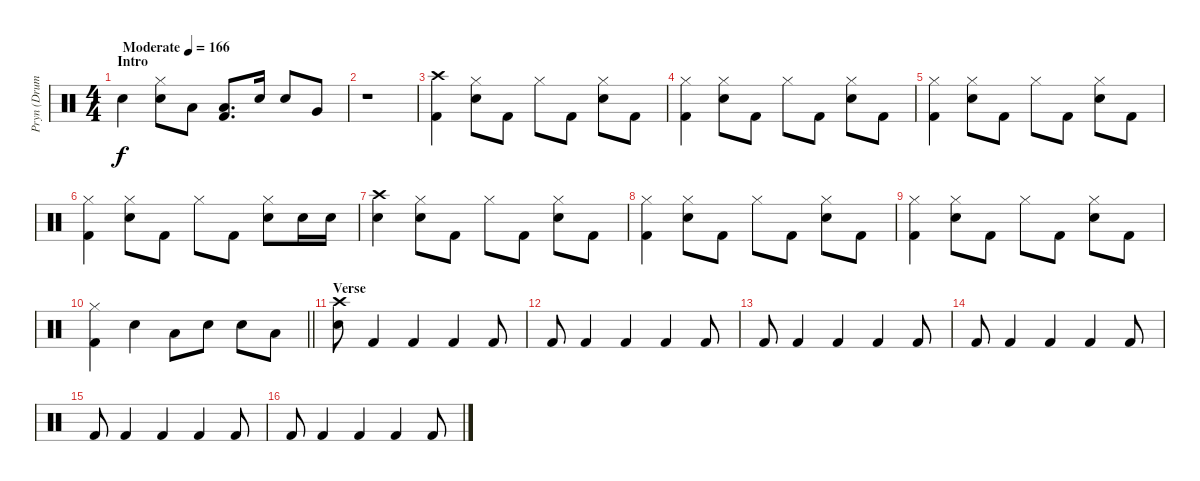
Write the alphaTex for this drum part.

\track ("Pryn (Drums)" "Pryn (Drum") {instrument percussion}
\staff {score}
\articulation defaults
\ts (4 4)
\section ("" "Intro")
\tempo (166 "Moderate")
\clef neutral
\ks c "Snare (hit) 2".4{dy f}
("Snare (hit) 2" "Hi-Hat (closed)").8 "Low Floor Tom (hit)".8 ("Low Floor Tom (hit)" "Kick (hit) 2").8{d} "Snare (hit) 2".16 "Snare (hit) 2".8 "Very Low Tom (hit)".8 |
r.1 |
("Crash high (hit)" "Kick (hit) 2").4 ("Hi-Hat (closed)" "Snare (hit) 2").8 "Kick (hit) 2".8 "Hi-Hat (closed)".8 "Kick (hit) 2".8 ("Hi-Hat (closed)" "Snare (hit) 2").8 "Kick (hit) 2".8 |
("Hi-Hat (closed)" "Kick (hit) 2").4 ("Hi-Hat (closed)" "Snare (hit) 2").8 "Kick (hit) 2".8 "Hi-Hat (closed)".8 "Kick (hit) 2".8 ("Hi-Hat (closed)" "Snare (hit) 2").8 "Kick (hit) 2".8 |
("Hi-Hat (closed)" "Kick (hit) 2").4 ("Hi-Hat (closed)" "Snare (hit) 2").8 "Kick (hit) 2".8 "Hi-Hat (closed)".8 "Kick (hit) 2".8 ("Hi-Hat (closed)" "Snare (hit) 2").8 "Kick (hit) 2".8 |
("Hi-Hat (closed)" "Kick (hit) 2").4 ("Hi-Hat (closed)" "Snare (hit) 2").8 "Kick (hit) 2".8 "Hi-Hat (closed)".8 "Kick (hit) 2".8 ("Snare (hit) 2" "Hi-Hat (closed)").8 "Snare (hit) 2".16 "Snare (hit) 2".16 |
("Crash high (hit)" "Snare (hit) 2").4 ("Snare (hit) 2" "Hi-Hat (closed)").8 "Kick (hit) 2".8 "Hi-Hat (closed)".8 "Kick (hit) 2".8 ("Snare (hit) 2" "Hi-Hat (closed)").8 "Kick (hit) 2".8 |
("Hi-Hat (closed)" "Kick (hit) 2").4 ("Snare (hit) 2" "Hi-Hat (closed)").8 "Kick (hit) 2".8 "Hi-Hat (closed)".8 "Kick (hit) 2".8 ("Snare (hit) 2" "Hi-Hat (closed)").8 "Kick (hit) 2".8 |
("Hi-Hat (closed)" "Kick (hit) 2").4 ("Snare (hit) 2" "Hi-Hat (closed)").8 "Kick (hit) 2".8 "Hi-Hat (closed)".8 "Kick (hit) 2".8 ("Snare (hit) 2" "Hi-Hat (closed)").8 "Kick (hit) 2".8 |
\barLineRight lightlight
("Hi-Hat (closed)" "Kick (hit) 2").4 "Snare (hit) 2".4 "Low Floor Tom (hit)".8 "Snare (hit) 2".8 "Snare (hit) 2".8 "Low Floor Tom (hit)".8 |
\section ("" "Verse")
("Snare (hit) 2" "Crash high (hit)").8 "Kick (hit) 2".4{volume 7} "Kick (hit) 2".4 "Kick (hit) 2".4 "Kick (hit) 2".8 |
"Kick (hit) 2".8 "Kick (hit) 2".4 "Kick (hit) 2".4 "Kick (hit) 2".4 "Kick (hit) 2".8 |
"Kick (hit) 2".8 "Kick (hit) 2".4 "Kick (hit) 2".4 "Kick (hit) 2".4 "Kick (hit) 2".8 |
"Kick (hit) 2".8 "Kick (hit) 2".4 "Kick (hit) 2".4 "Kick (hit) 2".4 "Kick (hit) 2".8 |
"Kick (hit) 2".8 "Kick (hit) 2".4 "Kick (hit) 2".4 "Kick (hit) 2".4 "Kick (hit) 2".8 |
"Kick (hit) 2".8 "Kick (hit) 2".4 "Kick (hit) 2".4 "Kick (hit) 2".4 "Kick (hit) 2".8
